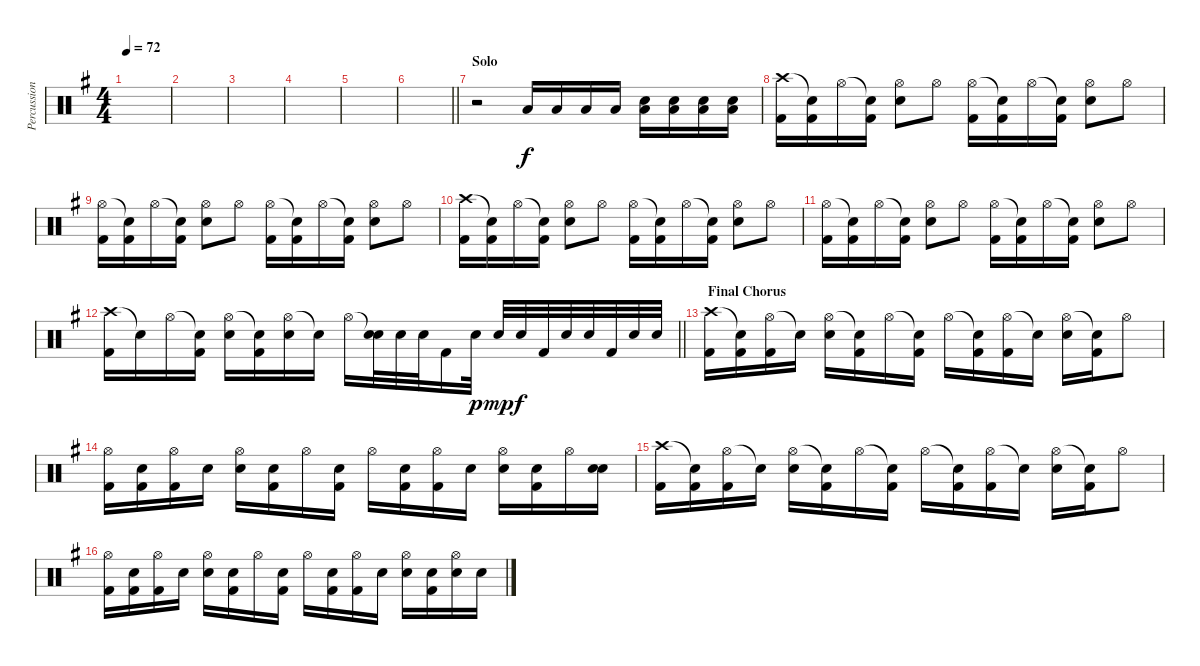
\track ("Percussion" "Percussion") {instrument percussion}
\staff {score}
\articulation defaults
\ts (4 4)
\tempo 72
\clef neutral
\ks g
|
|
|
|
|
\barLineRight lightlight
|
\section ("" "Solo")
r.2 "Low Tom (hit)".16 "Low Tom (hit)".16 "Low Tom (hit)".16 "Low Tom (hit)".16 ("Low Tom (hit)" "Electric Snare (hit)").16 ("Low Tom (hit)" "Electric Snare (hit)").16 ("Low Tom (hit)" "Electric Snare (hit)").16 ("Low Tom (hit)" "Electric Snare (hit)").16 |
("Crash high (hit)" "Kick (hit) 2").16 ("Snare (hit)"{t} "Kick (hit) 2").16 "Hi-Hat (open)".16 ("Snare (hit)"{t} "Kick (hit) 2").16 ("Hi-Hat (open)" "Electric Snare (hit)").8 "Hi-Hat (open)".8 ("Hi-Hat (open)" "Kick (hit) 2").16 ("Snare (hit)"{t} "Kick (hit) 2").16 "Hi-Hat (open)".16 ("Snare (hit)"{t} "Kick (hit) 2").16 ("Hi-Hat (open)" "Electric Snare (hit)").8 "Hi-Hat (open)".8 |
("Hi-Hat (open)" "Kick (hit) 2").16 ("Snare (hit)"{t} "Kick (hit) 2").16 "Hi-Hat (open)".16 ("Snare (hit)"{t} "Kick (hit) 2").16 ("Hi-Hat (open)" "Electric Snare (hit)").8 "Hi-Hat (open)".8 ("Hi-Hat (open)" "Kick (hit) 2").16 ("Snare (hit)"{t} "Kick (hit) 2").16 "Hi-Hat (open)".16 ("Snare (hit)"{t} "Kick (hit) 2").16 ("Hi-Hat (open)" "Electric Snare (hit)").8 "Hi-Hat (open)".8 |
("Crash high (hit)" "Kick (hit) 2").16 ("Snare (hit)"{t} "Kick (hit) 2").16 "Hi-Hat (open)".16 ("Snare (hit)"{t} "Kick (hit) 2").16 ("Hi-Hat (open)" "Electric Snare (hit)").8 "Hi-Hat (open)".8 ("Hi-Hat (open)" "Kick (hit) 2").16 ("Snare (hit)"{t} "Kick (hit) 2").16 "Hi-Hat (open)".16 ("Snare (hit)"{t} "Kick (hit) 2").16 ("Hi-Hat (open)" "Electric Snare (hit)").8 "Hi-Hat (open)".8 |
("Hi-Hat (open)" "Kick (hit) 2").16 ("Snare (hit)"{t} "Kick (hit) 2").16 "Hi-Hat (open)".16 ("Snare (hit)"{t} "Kick (hit) 2").16 ("Hi-Hat (open)" "Electric Snare (hit)").8 "Hi-Hat (open)".8 ("Hi-Hat (open)" "Kick (hit) 2").16 ("Snare (hit)"{t} "Kick (hit) 2").16 "Hi-Hat (open)".16 ("Snare (hit)"{t} "Kick (hit) 2").16 ("Hi-Hat (open)" "Electric Snare (hit)").8 "Hi-Hat (open)".8 |
\barLineRight lightlight
("Crash high (hit)" "Kick (hit) 2").16 "Snare (hit)"{t}.16 "Hi-Hat (open)".16 ("Snare (hit)"{t} "Kick (hit) 2").16 ("Hi-Hat (open)" "Electric Snare (hit)").16 ("Snare (hit)"{t} "Kick (hit) 2").16 ("Hi-Hat (open)" "Electric Snare (hit)").16 "Snare (hit)"{t}.16 "Hi-Hat (open)".16 ("Snare (hit)"{t} "Electric Snare (hit)").32 "Electric Snare (hit)".32 "Electric Snare (hit)".32 "Kick (hit) 2".16 "Electric Snare (hit)".32{dy p} "Electric Snare (hit)".32{dy mp} "Electric Snare (hit)".32{dy f} "Kick (hit) 2".32 "Electric Snare (hit)".32 "Electric Snare (hit)".32 "Kick (hit) 2".32 "Electric Snare (hit)".32 "Electric Snare (hit)".32 |
\section ("" " Final Chorus")
("Crash high (hit)" "Kick (hit) 2").16 ("Snare (hit)"{t} "Kick (hit) 2").16 ("Hi-Hat (open)" "Kick (hit) 2").16 "Snare (hit)"{t}.16 ("Hi-Hat (open)" "Electric Snare (hit)").16 ("Snare (hit)"{t} "Kick (hit) 2").16 "Hi-Hat (open)".16 ("Snare (hit)"{t} "Kick (hit) 2").16 "Hi-Hat (open)".16 ("Snare (hit)"{t} "Kick (hit) 2").16 ("Hi-Hat (open)" "Kick (hit) 2").16 "Snare (hit)"{t}.16 ("Hi-Hat (open)" "Electric Snare (hit)").16 ("Snare (hit)"{t} "Kick (hit) 2").16 "Hi-Hat (open)".8 |
("Hi-Hat (open)" "Kick (hit) 2").16 ("Snare (hit)" "Kick (hit) 2").16 ("Hi-Hat (open)" "Kick (hit) 2").16 "Snare (hit)".16 ("Hi-Hat (open)" "Electric Snare (hit)").16 ("Snare (hit)" "Kick (hit) 2").16 "Hi-Hat (open)".16 ("Snare (hit)" "Kick (hit) 2").16 "Hi-Hat (open)".16 ("Snare (hit)" "Kick (hit) 2").16 ("Hi-Hat (open)" "Kick (hit) 2").16 "Snare (hit)".16 ("Hi-Hat (open)" "Electric Snare (hit)").16 ("Snare (hit)" "Kick (hit) 2").16 "Hi-Hat (open)".16 ("Snare (hit)" "Electric Snare (hit)").16 |
("Crash high (hit)" "Kick (hit) 2").16 ("Snare (hit)"{t} "Kick (hit) 2").16 ("Hi-Hat (open)" "Kick (hit) 2").16 "Snare (hit)"{t}.16 ("Hi-Hat (open)" "Electric Snare (hit)").16 ("Snare (hit)"{t} "Kick (hit) 2").16 "Hi-Hat (open)".16 ("Snare (hit)"{t} "Kick (hit) 2").16 "Hi-Hat (open)".16 ("Snare (hit)"{t} "Kick (hit) 2").16 ("Hi-Hat (open)" "Kick (hit) 2").16 "Snare (hit)"{t}.16 ("Hi-Hat (open)" "Electric Snare (hit)").16 ("Snare (hit)"{t} "Kick (hit) 2").16 "Hi-Hat (open)".8 |
("Hi-Hat (open)" "Kick (hit) 2").16 ("Snare (hit)" "Kick (hit) 2").16 ("Hi-Hat (open)" "Kick (hit) 2").16 "Snare (hit)".16 ("Hi-Hat (open)" "Electric Snare (hit)").16 ("Snare (hit)" "Kick (hit) 2").16 "Hi-Hat (open)".16 ("Snare (hit)" "Kick (hit) 2").16 "Hi-Hat (open)".16 ("Snare (hit)" "Kick (hit) 2").16 ("Hi-Hat (open)" "Kick (hit) 2").16 "Snare (hit)".16 ("Hi-Hat (open)" "Electric Snare (hit)").16 ("Snare (hit)" "Kick (hit) 2").16 ("Hi-Hat (open)" "Electric Snare (hit)").16 "Snare (hit)".16
